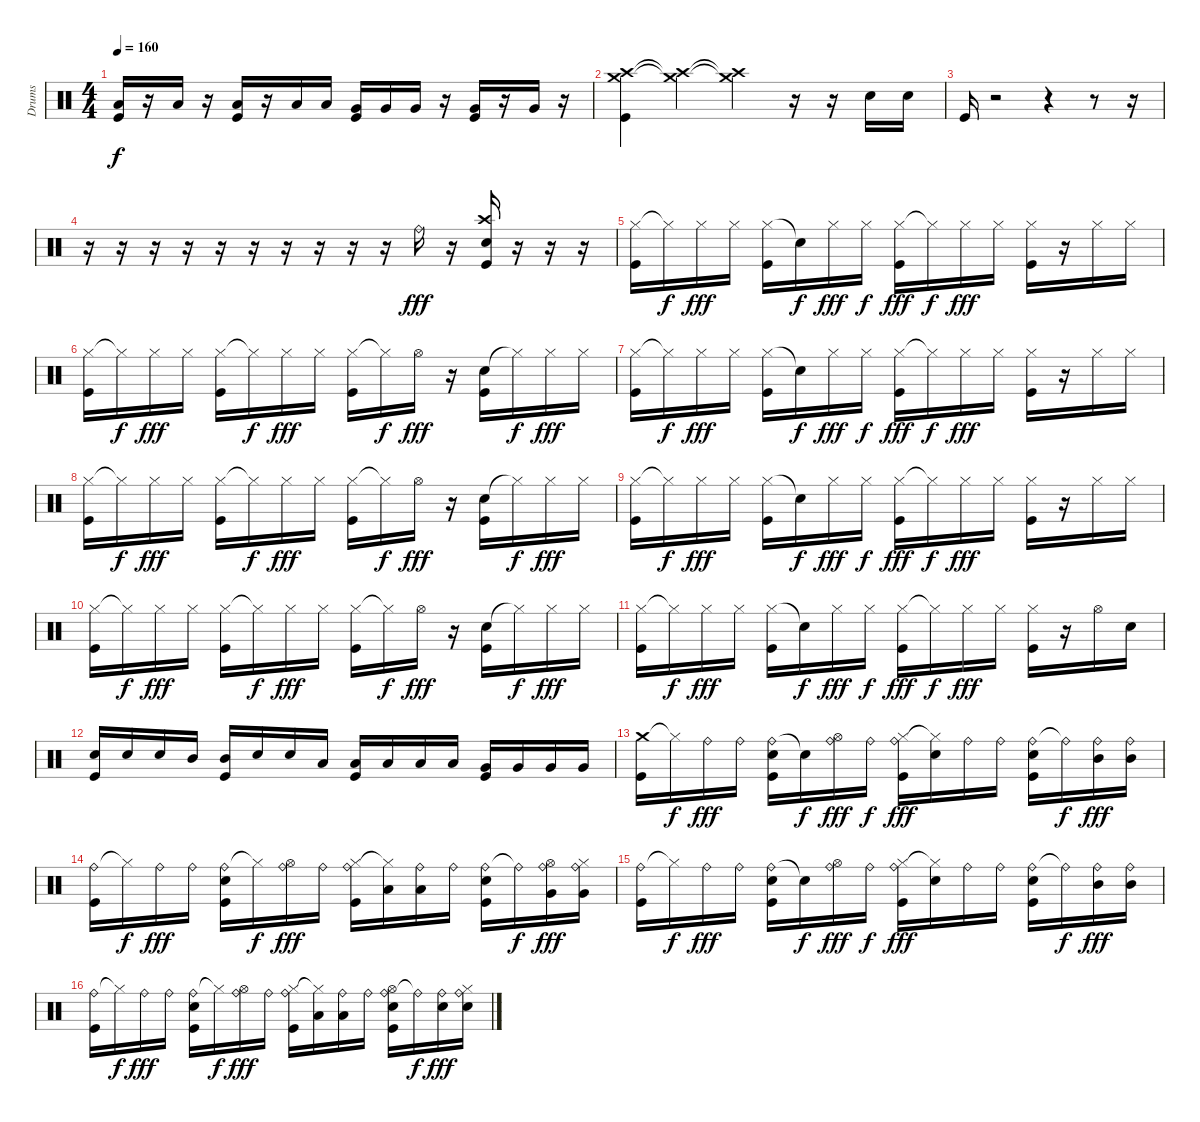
\track ("Drums" "Drums") {instrument percussion}
\staff {score}
\articulation defaults
\ts (4 4)
\tempo 160
\clef neutral
\ks c
("Low Tom (hit)" "Kick (hit)").16{dy f} r.16 "Low Tom (hit)".16 r.16 ("Low Tom (hit)" "Kick (hit)").16 r.16 "Low Tom (hit)".16 "Low Tom (hit)".16 ("Very Low Tom (hit)" "Kick (hit)").16 "Very Low Tom (hit)".16 "Very Low Tom (hit)".16 r.16 ("Very Low Tom (hit)" "Kick (hit)").16 r.16 "Very Low Tom (hit)".16 r.16 |
("Crash medium (hit)" "Crash high (hit)" "Kick (hit)").4 ("Crash medium (hit)"{t} "Crash high (hit)"{t}).4 ("Crash medium (hit)"{t} "Crash high (hit)"{t}).4 r.16 r.16 "Electric Snare (hit)".16 "Electric Snare (hit)".16 |
"Kick (hit)".16 r.2 r.4 r.8 r.16 |
r.16 r.16 r.16 r.16 r.16 r.16 r.16 r.16 r.16 r.16 "Ride (bell)".16{dy fff} r.16 ("Crash high (hit)" "Electric Snare (hit)" "Kick (hit)").16 r.16 r.16 r.16 |
("Hi-Hat (closed)" "Kick (hit)").16 "Hi-Hat (closed)"{t}.16{dy f} "Hi-Hat (closed)".16{dy fff} "Hi-Hat (closed)".16 ("Hi-Hat (closed)" "Kick (hit)").16 "Snare (hit)"{t}.16{dy f} "Hi-Hat (closed)".16{dy fff} "Hi-Hat (closed)".16{dy f} ("Hi-Hat (closed)" "Kick (hit)").16{dy fff} "Hi-Hat (closed)"{t}.16{dy f} "Hi-Hat (closed)".16{dy fff} "Hi-Hat (closed)".16 ("Hi-Hat (closed)" "Kick (hit)").16 r.16 "Hi-Hat (closed)".16 "Hi-Hat (closed)".16 |
("Hi-Hat (closed)" "Kick (hit)").16 "Hi-Hat (closed)"{t}.16{dy f} "Hi-Hat (closed)".16{dy fff} "Hi-Hat (closed)".16 ("Hi-Hat (closed)" "Kick (hit)").16 "Hi-Hat (closed)"{t}.16{dy f} "Hi-Hat (closed)".16{dy fff} "Hi-Hat (closed)".16 ("Hi-Hat (closed)" "Kick (hit)").16 "Hi-Hat (closed)"{t}.16{dy f} "Hi-Hat (open)".16{dy fff} r.16 ("Electric Snare (hit)" "Kick (hit)").16 "Hi-Hat (closed)"{t}.16{dy f} "Hi-Hat (closed)".16{dy fff} "Hi-Hat (closed)".16 |
("Hi-Hat (closed)" "Kick (hit)").16 "Hi-Hat (closed)"{t}.16{dy f} "Hi-Hat (closed)".16{dy fff} "Hi-Hat (closed)".16 ("Hi-Hat (closed)" "Kick (hit)").16 "Snare (hit)"{t}.16{dy f} "Hi-Hat (closed)".16{dy fff} "Hi-Hat (closed)".16{dy f} ("Hi-Hat (closed)" "Kick (hit)").16{dy fff} "Hi-Hat (closed)"{t}.16{dy f} "Hi-Hat (closed)".16{dy fff} "Hi-Hat (closed)".16 ("Hi-Hat (closed)" "Kick (hit)").16 r.16 "Hi-Hat (closed)".16 "Hi-Hat (closed)".16 |
("Hi-Hat (closed)" "Kick (hit)").16 "Hi-Hat (closed)"{t}.16{dy f} "Hi-Hat (closed)".16{dy fff} "Hi-Hat (closed)".16 ("Hi-Hat (closed)" "Kick (hit)").16 "Hi-Hat (closed)"{t}.16{dy f} "Hi-Hat (closed)".16{dy fff} "Hi-Hat (closed)".16 ("Hi-Hat (closed)" "Kick (hit)").16 "Hi-Hat (closed)"{t}.16{dy f} "Hi-Hat (open)".16{dy fff} r.16 ("Electric Snare (hit)" "Kick (hit)").16 "Hi-Hat (closed)"{t}.16{dy f} "Hi-Hat (closed)".16{dy fff} "Hi-Hat (closed)".16 |
("Hi-Hat (closed)" "Kick (hit)").16 "Hi-Hat (closed)"{t}.16{dy f} "Hi-Hat (closed)".16{dy fff} "Hi-Hat (closed)".16 ("Hi-Hat (closed)" "Kick (hit)").16 "Snare (hit)"{t}.16{dy f} "Hi-Hat (closed)".16{dy fff} "Hi-Hat (closed)".16{dy f} ("Hi-Hat (closed)" "Kick (hit)").16{dy fff} "Hi-Hat (closed)"{t}.16{dy f} "Hi-Hat (closed)".16{dy fff} "Hi-Hat (closed)".16 ("Hi-Hat (closed)" "Kick (hit)").16 r.16 "Hi-Hat (closed)".16 "Hi-Hat (closed)".16 |
("Hi-Hat (closed)" "Kick (hit)").16 "Hi-Hat (closed)"{t}.16{dy f} "Hi-Hat (closed)".16{dy fff} "Hi-Hat (closed)".16 ("Hi-Hat (closed)" "Kick (hit)").16 "Hi-Hat (closed)"{t}.16{dy f} "Hi-Hat (closed)".16{dy fff} "Hi-Hat (closed)".16 ("Hi-Hat (closed)" "Kick (hit)").16 "Hi-Hat (closed)"{t}.16{dy f} "Hi-Hat (open)".16{dy fff} r.16 ("Electric Snare (hit)" "Kick (hit)").16 "Hi-Hat (closed)"{t}.16{dy f} "Hi-Hat (closed)".16{dy fff} "Hi-Hat (closed)".16 |
("Hi-Hat (closed)" "Kick (hit)").16 "Hi-Hat (closed)"{t}.16{dy f} "Hi-Hat (closed)".16{dy fff} "Hi-Hat (closed)".16 ("Hi-Hat (closed)" "Kick (hit)").16 "Snare (hit)"{t}.16{dy f} "Hi-Hat (closed)".16{dy fff} "Hi-Hat (closed)".16{dy f} ("Hi-Hat (closed)" "Kick (hit)").16{dy fff} "Hi-Hat (closed)"{t}.16{dy f} "Hi-Hat (closed)".16{dy fff} "Hi-Hat (closed)".16 ("Hi-Hat (closed)" "Kick (hit)").16 r.16 "Hi-Hat (open)".16 "Electric Snare (hit)".16 |
("Electric Snare (hit)" "Kick (hit)").16 "Electric Snare (hit)".16 "Electric Snare (hit)".16 "Mid Tom (hit)".16 ("Mid Tom (hit)" "Kick (hit)").16 "Electric Snare (hit)".16 "Electric Snare (hit)".16 "Low Tom (hit)".16 ("Low Tom (hit)" "Kick (hit)").16 "Low Tom (hit)".16 "Low Tom (hit)".16 "Low Tom (hit)".16 ("Very Low Tom (hit)" "Kick (hit)").16 "Very Low Tom (hit)".16 "Very Low Tom (hit)".16 "Very Low Tom (hit)".16 |
("Crash medium (hit)" "Kick (hit)").16 "Hi-Hat (closed)"{t}.16{dy f} "Ride (bell)".16{dy fff} "Ride (bell)".16 ("Ride (bell)" "Electric Snare (hit)" "Kick (hit)").16 "Snare (hit)"{t}.16{dy f} ("Ride (bell)" "Hi-Hat (open)").16{dy fff} "Ride (bell)".16{dy f} ("Ride (bell)" "Hi-Hat (closed)" "Kick (hit)").16{dy fff} ("Hi-Hat (closed)"{t} "Electric Snare (hit)").16 "Ride (bell)".16 "Ride (bell)".16 ("Ride (bell)" "Electric Snare (hit)" "Kick (hit)").16 "Ride (bell)"{t}.16{dy f} ("Ride (bell)" "Mid Tom (hit)").16{dy fff} ("Ride (bell)" "Mid Tom (hit)").16 |
("Ride (bell)" "Kick (hit)").16 "Hi-Hat (closed)"{t}.16{dy f} "Ride (bell)".16{dy fff} "Ride (bell)".16 ("Ride (bell)" "Electric Snare (hit)" "Kick (hit)").16 "Hi-Hat (closed)"{t}.16{dy f} ("Ride (bell)" "Hi-Hat (open)").16{dy fff} "Ride (bell)".16 ("Ride (bell)" "Hi-Hat (closed)" "Kick (hit)").16 ("Hi-Hat (closed)"{t} "Low Tom (hit)").16 ("Ride (bell)" "Low Tom (hit)").16 "Ride (bell)".16 ("Ride (bell)" "Electric Snare (hit)" "Kick (hit)").16 "Ride (bell)"{t}.16{dy f} ("Ride (bell)" "Hi-Hat (open)" "Very Low Tom (hit)").16{dy fff} ("Ride (bell)" "Hi-Hat (closed)" "Very Low Tom (hit)").16 |
("Ride (bell)" "Kick (hit)").16 "Hi-Hat (closed)"{t}.16{dy f} "Ride (bell)".16{dy fff} "Ride (bell)".16 ("Ride (bell)" "Electric Snare (hit)" "Kick (hit)").16 "Snare (hit)"{t}.16{dy f} ("Ride (bell)" "Hi-Hat (open)").16{dy fff} "Ride (bell)".16{dy f} ("Ride (bell)" "Hi-Hat (closed)" "Kick (hit)").16{dy fff} ("Hi-Hat (closed)"{t} "Electric Snare (hit)").16 "Ride (bell)".16 "Ride (bell)".16 ("Ride (bell)" "Electric Snare (hit)" "Kick (hit)").16 "Ride (bell)"{t}.16{dy f} ("Ride (bell)" "Mid Tom (hit)").16{dy fff} ("Ride (bell)" "Mid Tom (hit)").16 |
("Ride (bell)" "Kick (hit)").16 "Hi-Hat (closed)"{t}.16{dy f} "Ride (bell)".16{dy fff} "Ride (bell)".16 ("Ride (bell)" "Electric Snare (hit)" "Kick (hit)").16 "Hi-Hat (closed)"{t}.16{dy f} ("Ride (bell)" "Hi-Hat (open)").16{dy fff} "Ride (bell)".16 ("Ride (bell)" "Hi-Hat (closed)" "Kick (hit)").16 ("Hi-Hat (closed)"{t} "Low Tom (hit)").16 ("Ride (bell)" "Low Tom (hit)").16 "Ride (bell)".16 ("Ride (bell)" "Hi-Hat (open)" "Electric Snare (hit)" "Kick (hit)").16 "Ride (bell)"{t}.16{dy f} ("Ride (bell)" "Electric Snare (hit)").16{dy fff} ("Ride (bell)" "Hi-Hat (closed)" "Electric Snare (hit)").16
